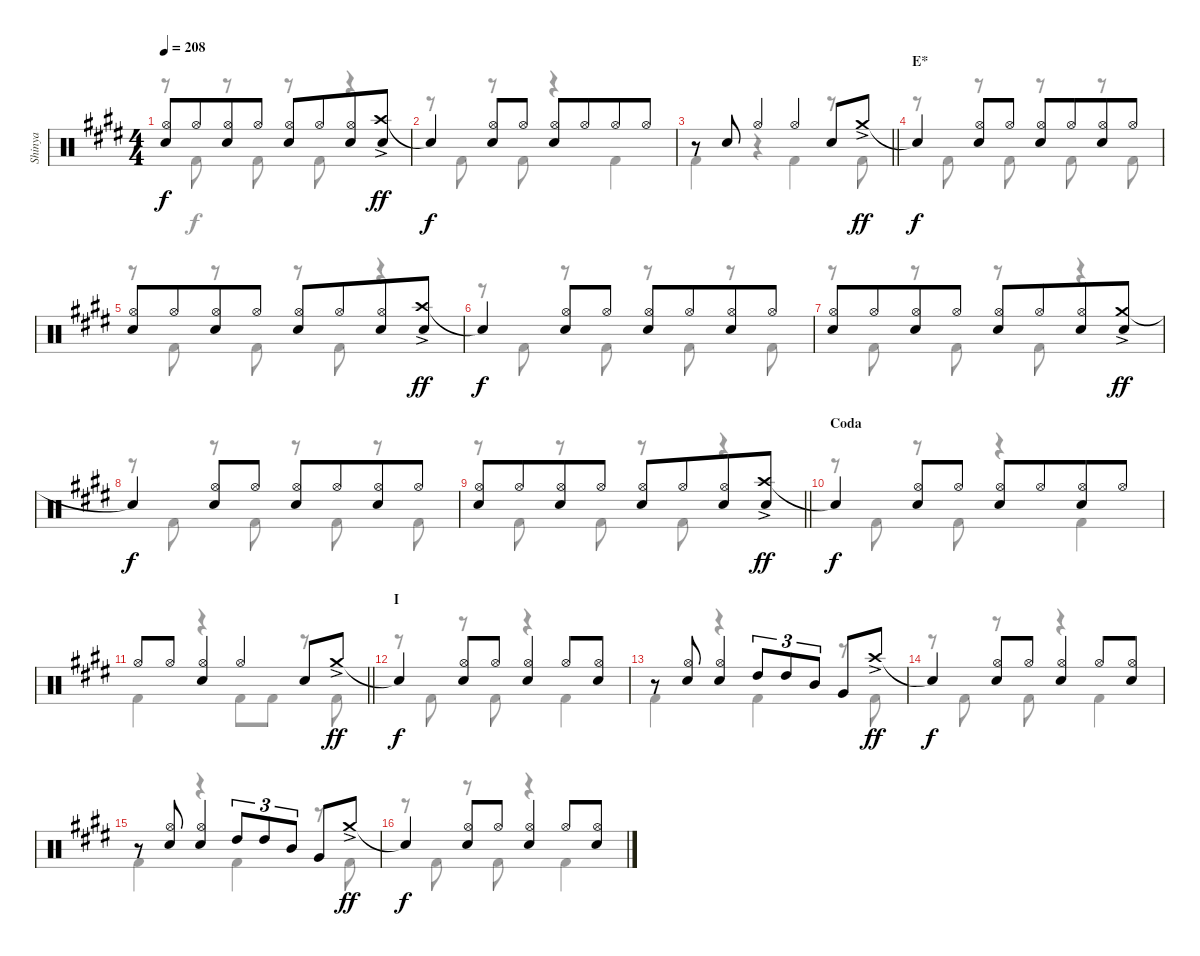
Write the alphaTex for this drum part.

\track ("Shinya" "Shinya") {instrument percussion}
\staff {score}
\articulation defaults
\voice
\ts (4 4)
\tempo 208
\clef neutral
\ks c#minor
("Hi-Hat (open)" "Snare (hit) 2").8{dy f} "Hi-Hat (open)".8{beam merge} ("Hi-Hat (open)" "Snare (hit) 2").8 "Hi-Hat (open)".8 ("Hi-Hat (open)" "Snare (hit) 2").8 "Hi-Hat (open)".8{beam merge} ("Hi-Hat (open)" "Snare (hit) 2").8 ("Crash high (hit)"{ac} "Snare (hit) 2").8{dy ff} |
"Snare (hit)"{t}.4{dy f} ("Hi-Hat (open)" "Snare (hit) 2").8 "Hi-Hat (open)".8 ("Hi-Hat (open)" "Snare (hit) 2").8 "Hi-Hat (open)".8{beam merge} "Hi-Hat (open)".8 "Hi-Hat (open)".8 |
\barLineRight lightlight
r.8 "Snare (hit) 2".8 "Hi-Hat (open)".4 "Hi-Hat (open)".4 "Snare (hit) 2".8 "Crash medium (hit)"{ac}.8{dy ff} |
\section ("" "E*")
"Snare (hit)"{t}.4{dy f} ("Hi-Hat (open)" "Snare (hit) 2").8 "Hi-Hat (open)".8 ("Hi-Hat (open)" "Snare (hit) 2").8 "Hi-Hat (open)".8{beam merge} ("Hi-Hat (open)" "Snare (hit) 2").8 "Hi-Hat (open)".8 |
("Hi-Hat (open)" "Snare (hit) 2").8 "Hi-Hat (open)".8{beam merge} ("Hi-Hat (open)" "Snare (hit) 2").8 "Hi-Hat (open)".8 ("Hi-Hat (open)" "Snare (hit) 2").8 "Hi-Hat (open)".8{beam merge} ("Hi-Hat (open)" "Snare (hit) 2").8 ("Crash high (hit)"{ac} "Snare (hit) 2").8{dy ff} |
"Snare (hit)"{t}.4{dy f} ("Hi-Hat (open)" "Snare (hit) 2").8 "Hi-Hat (open)".8 ("Hi-Hat (open)" "Snare (hit) 2").8 "Hi-Hat (open)".8{beam merge} ("Hi-Hat (open)" "Snare (hit) 2").8 "Hi-Hat (open)".8 |
("Hi-Hat (open)" "Snare (hit) 2").8 "Hi-Hat (open)".8{beam merge} ("Hi-Hat (open)" "Snare (hit) 2").8 "Hi-Hat (open)".8 ("Hi-Hat (open)" "Snare (hit) 2").8 "Hi-Hat (open)".8{beam merge} ("Hi-Hat (open)" "Snare (hit) 2").8 ("Crash medium (hit)"{ac} "Snare (hit) 2").8{dy ff} |
"Snare (hit)"{t}.4{dy f} ("Hi-Hat (open)" "Snare (hit) 2").8 "Hi-Hat (open)".8 ("Hi-Hat (open)" "Snare (hit) 2").8 "Hi-Hat (open)".8{beam merge} ("Hi-Hat (open)" "Snare (hit) 2").8 "Hi-Hat (open)".8 |
\barLineRight lightlight
("Hi-Hat (open)" "Snare (hit) 2").8 "Hi-Hat (open)".8{beam merge} ("Hi-Hat (open)" "Snare (hit) 2").8 "Hi-Hat (open)".8 ("Hi-Hat (open)" "Snare (hit) 2").8 "Hi-Hat (open)".8{beam merge} ("Hi-Hat (open)" "Snare (hit) 2").8 ("Crash high (hit)"{ac} "Snare (hit) 2").8{dy ff} |
\section ("" "Coda")
"Snare (hit)"{t}.4{dy f} ("Hi-Hat (open)" "Snare (hit) 2").8 "Hi-Hat (open)".8 ("Hi-Hat (open)" "Snare (hit) 2").8 "Hi-Hat (open)".8{beam merge} ("Hi-Hat (open)" "Snare (hit) 2").8 "Hi-Hat (open)".8 |
\barLineRight lightlight "Hi-Hat (open)".8 "Hi-Hat (open)".8
("Hi-Hat (open)" "Snare (hit) 2").4 "Hi-Hat (open)".4 "Snare (hit) 2".8 "Crash medium (hit)"{ac}.8{dy ff} |
\section ("" "I")
"Snare (hit)"{t}.4{dy f} ("Hi-Hat (open)" "Snare (hit) 2").8 "Hi-Hat (open)".8 ("Hi-Hat (open)" "Snare (hit) 2").4 "Hi-Hat (open)".8 ("Hi-Hat (open)" "Snare (hit) 2").8 |
r.8 ("Hi-Hat (open)" "Snare (hit) 2").8 ("Hi-Hat (open)" "Snare (hit) 2").4 "High Tom (hit)".8{tu (3 2)} "High Tom (hit)".8{tu (3 2)} "Mid Tom (hit)".8{tu (3 2)} "Very Low Tom (hit)".8 "Crash high (hit)"{ac}.8{dy ff} |
"Snare (hit)"{t}.4{dy f} ("Hi-Hat (open)" "Snare (hit) 2").8 "Hi-Hat (open)".8 ("Hi-Hat (open)" "Snare (hit) 2").4 "Hi-Hat (open)".8 ("Hi-Hat (open)" "Snare (hit) 2").8 |
r.8 ("Hi-Hat (open)" "Snare (hit) 2").8 ("Hi-Hat (open)" "Snare (hit) 2").4 "High Tom (hit)".8{tu (3 2)} "High Tom (hit)".8{tu (3 2)} "Mid Tom (hit)".8{tu (3 2)} "Very Low Tom (hit)".8 "Crash medium (hit)"{ac}.8{dy ff} |
"Snare (hit)"{t}.4{dy f} ("Hi-Hat (open)" "Snare (hit) 2").8 "Hi-Hat (open)".8 ("Hi-Hat (open)" "Snare (hit) 2").4 "Hi-Hat (open)".8 ("Hi-Hat (open)" "Snare (hit) 2").8
\voice
\clef neutral
\ottava regular
\simile none
\ks c#minor
r.8{dy f} "Kick (hit) 2".8 r.8 "Kick (hit) 2".8 r.8 "Kick (hit) 2".8 r.4 |
r.8 "Kick (hit) 2".8 r.8 "Kick (hit) 2".8 r.4 "Kick (hit) 2".4 |
\barLineRight lightlight "Kick (hit) 2".4
r.4 "Kick (hit) 2".4 r.8 "Kick (hit) 2".8 |
r.8 "Kick (hit) 2".8 r.8 "Kick (hit) 2".8 r.8 "Kick (hit) 2".8 r.8 "Kick (hit) 2".8 |
r.8 "Kick (hit) 2".8 r.8 "Kick (hit) 2".8 r.8 "Kick (hit) 2".8 r.4 |
r.8 "Kick (hit) 2".8 r.8 "Kick (hit) 2".8 r.8 "Kick (hit) 2".8 r.8 "Kick (hit) 2".8 |
r.8 "Kick (hit) 2".8 r.8 "Kick (hit) 2".8 r.8 "Kick (hit) 2".8 r.4 |
r.8 "Kick (hit) 2".8 r.8 "Kick (hit) 2".8 r.8 "Kick (hit) 2".8 r.8 "Kick (hit) 2".8 |
\barLineRight lightlight
r.8 "Kick (hit) 2".8 r.8 "Kick (hit) 2".8 r.8 "Kick (hit) 2".8 r.4 |
r.8 "Kick (hit) 2".8 r.8 "Kick (hit) 2".8 r.4 "Kick (hit) 2".4 |
\barLineRight lightlight "Kick (hit) 2".4
r.4 "Kick (hit) 2".8 "Kick (hit) 2".8 r.8 "Kick (hit) 2".8 |
r.8 "Kick (hit) 2".8 r.8 "Kick (hit) 2".8 r.4 "Kick (hit) 2".4 |
"Kick (hit) 2".4 r.4 "Kick (hit) 2".4 r.8 "Kick (hit) 2".8 |
r.8 "Kick (hit) 2".8 r.8 "Kick (hit) 2".8 r.4 "Kick (hit) 2".4 |
"Kick (hit) 2".4 r.4 "Kick (hit) 2".4 r.8 "Kick (hit) 2".8 |
r.8 "Kick (hit) 2".8 r.8 "Kick (hit) 2".8 r.4 "Kick (hit) 2".4
